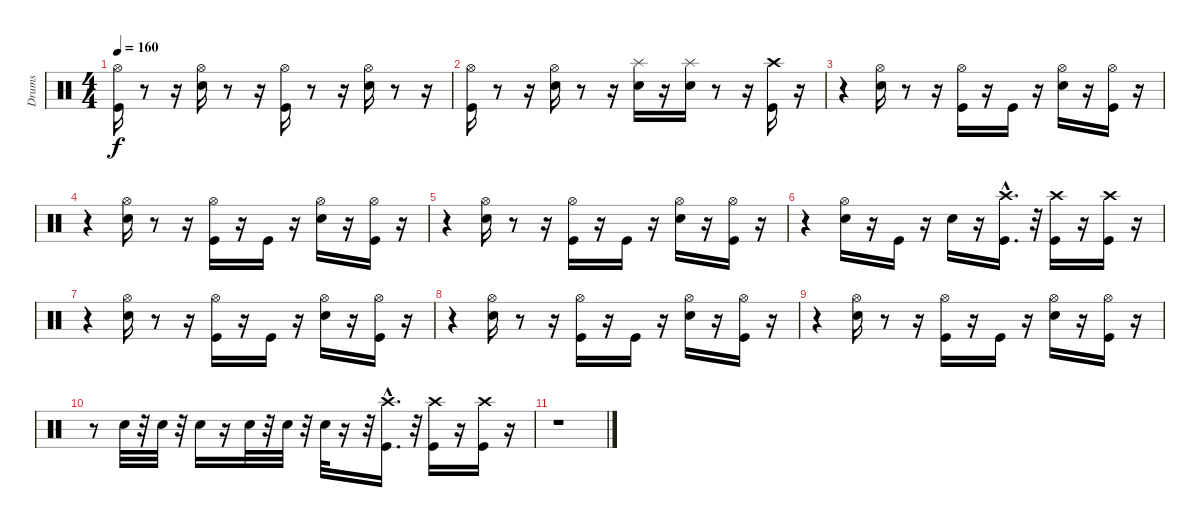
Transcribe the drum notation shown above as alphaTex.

\track ("Drums" "Drums") {instrument percussion}
\staff {score}
\articulation defaults
\ts (4 4)
\tempo 160
\clef neutral
\ks c
("Kick (hit)" "Hi-Hat (open)").16{dy f} r.8 r.16 ("Hi-Hat (open)" "Snare (hit) 2").16 r.8 r.16 ("Kick (hit)" "Hi-Hat (open)").16 r.8 r.16 ("Snare (hit) 2" "Hi-Hat (open)").16 r.8 r.16 |
("Kick (hit)" "Hi-Hat (open)").16 r.8 r.16 ("Hi-Hat (open)" "Snare (hit) 2").16 r.8 r.16 ("Snare (hit) 2" "Splash (hit)").16 r.16 ("Snare (hit) 2" "Splash (hit)").16 r.8 r.16 ("Kick (hit)" "Crash high (hit)").16 r.16 |
r.4 ("Snare (hit) 2" "Hi-Hat (open)").16 r.8 r.16 ("Hi-Hat (open)" "Kick (hit)").16 r.16 "Kick (hit)".16 r.16 ("Snare (hit) 2" "Hi-Hat (open)").16 r.16 ("Kick (hit)" "Hi-Hat (open)").16 r.16 |
r.4 ("Snare (hit) 2" "Hi-Hat (open)").16 r.8 r.16 ("Hi-Hat (open)" "Kick (hit)").16 r.16 "Kick (hit)".16 r.16 ("Snare (hit) 2" "Hi-Hat (open)").16 r.16 ("Kick (hit)" "Hi-Hat (open)").16 r.16 |
r.4 ("Snare (hit) 2" "Hi-Hat (open)").16 r.8 r.16 ("Hi-Hat (open)" "Kick (hit)").16 r.16 "Kick (hit)".16 r.16 ("Snare (hit) 2" "Hi-Hat (open)").16 r.16 ("Kick (hit)" "Hi-Hat (open)").16 r.16 |
r.4 ("Hi-Hat (open)" "Snare (hit) 2").16 r.16 "Kick (hit)".16 r.16 "Snare (hit) 2".16 r.16 ("Kick (hit)"{hac} "Crash high (hit)"{hac}).16{d} r.32 ("Crash high (hit)" "Kick (hit)").16 r.16 ("Kick (hit)" "Crash high (hit)").16 r.16 |
r.4 ("Snare (hit) 2" "Hi-Hat (open)").16 r.8 r.16 ("Hi-Hat (open)" "Kick (hit)").16 r.16 "Kick (hit)".16 r.16 ("Snare (hit) 2" "Hi-Hat (open)").16 r.16 ("Kick (hit)" "Hi-Hat (open)").16 r.16 |
r.4 ("Snare (hit) 2" "Hi-Hat (open)").16 r.8 r.16 ("Hi-Hat (open)" "Kick (hit)").16 r.16 "Kick (hit)".16 r.16 ("Snare (hit) 2" "Hi-Hat (open)").16 r.16 ("Kick (hit)" "Hi-Hat (open)").16 r.16 |
r.4 ("Snare (hit) 2" "Hi-Hat (open)").16 r.8 r.16 ("Hi-Hat (open)" "Kick (hit)").16 r.16 "Kick (hit)".16 r.16 ("Snare (hit) 2" "Hi-Hat (open)").16 r.16 ("Kick (hit)" "Hi-Hat (open)").16 r.16 |
r.8 "Snare (hit) 2".32 r.32 "Snare (hit) 2".32 r.32 "Snare (hit) 2".16 r.16 "Snare (hit) 2".32 r.32 "Snare (hit) 2".32 r.32 "Snare (hit) 2".32 r.16 r.32 ("Crash high (hit)"{hac} "Kick (hit)"{hac}).16{d} r.32 ("Crash high (hit)" "Kick (hit)").16 r.16 ("Kick (hit)" "Crash high (hit)").16 r.16 |
r.1
